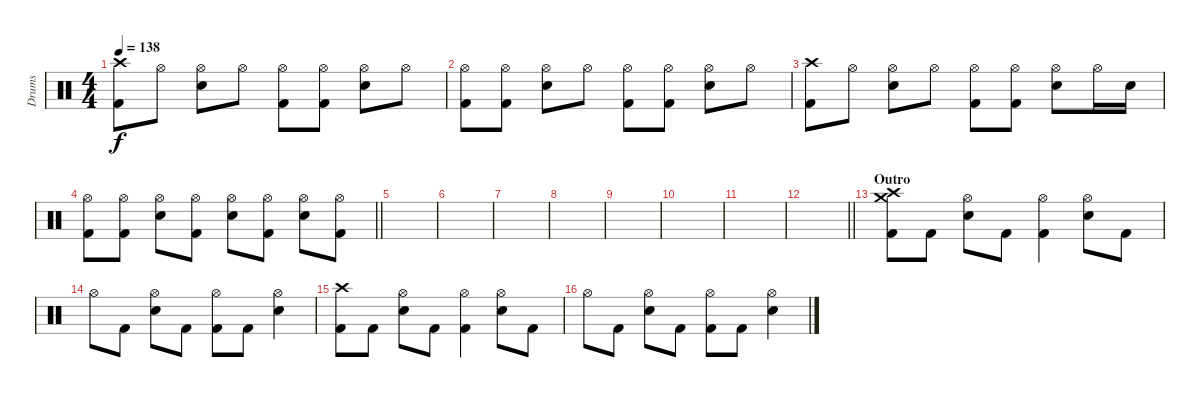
\track ("Drums" "Drums") {instrument percussion}
\staff {score}
\articulation defaults
\ts (4 4)
\tempo 138
\clef neutral
\ks c
("Crash high (hit)" "Kick (hit) 2").8{dy f} "Hi-Hat (open)".8 ("Hi-Hat (open)" "Snare (hit) 2").8 "Hi-Hat (open)".8 ("Hi-Hat (open)" "Kick (hit) 2").8 ("Hi-Hat (open)" "Kick (hit) 2").8 ("Hi-Hat (open)" "Snare (hit) 2").8 "Hi-Hat (open)".8 |
("Hi-Hat (open)" "Kick (hit) 2").8 ("Hi-Hat (open)" "Kick (hit) 2").8 ("Hi-Hat (open)" "Snare (hit) 2").8 "Hi-Hat (open)".8 ("Hi-Hat (open)" "Kick (hit) 2").8 ("Hi-Hat (open)" "Kick (hit) 2").8 ("Hi-Hat (open)" "Snare (hit) 2").8 "Hi-Hat (open)".8 |
("Crash high (hit)" "Kick (hit) 2").8 "Hi-Hat (open)".8 ("Hi-Hat (open)" "Snare (hit) 2").8 "Hi-Hat (open)".8 ("Hi-Hat (open)" "Kick (hit) 2").8 ("Hi-Hat (open)" "Kick (hit) 2").8 ("Hi-Hat (open)" "Snare (hit) 2").8 "Hi-Hat (open)".16 "Snare (hit) 2".16 |
\barLineRight lightlight
("Hi-Hat (open)" "Kick (hit) 2").8 ("Hi-Hat (open)" "Kick (hit) 2").8 ("Hi-Hat (open)" "Snare (hit) 2").8 ("Hi-Hat (open)" "Kick (hit) 2").8 ("Hi-Hat (open)" "Snare (hit) 2").8 ("Hi-Hat (open)" "Kick (hit) 2").8 ("Hi-Hat (open)" "Snare (hit) 2").8 ("Hi-Hat (open)" "Kick (hit) 2").8 |
|
|
|
|
|
|
|
\barLineRight lightlight
|
\section ("" "Outro")
("Crash high (hit)" "Crash medium (hit)" "Kick (hit) 2").8 "Kick (hit) 2".8 ("Hi-Hat (open)" "Snare (hit) 2").8 "Kick (hit) 2".8 ("Hi-Hat (open)" "Kick (hit) 2").4 ("Hi-Hat (open)" "Snare (hit) 2").8 "Kick (hit) 2".8 |
"Hi-Hat (open)".8 "Kick (hit) 2".8 ("Hi-Hat (open)" "Snare (hit) 2").8 "Kick (hit) 2".8 ("Hi-Hat (open)" "Kick (hit) 2").8 "Kick (hit) 2".8 ("Hi-Hat (open)" "Snare (hit) 2").4 |
("Crash high (hit)" "Kick (hit) 2").8 "Kick (hit) 2".8 ("Hi-Hat (open)" "Snare (hit) 2").8 "Kick (hit) 2".8 ("Hi-Hat (open)" "Kick (hit) 2").4 ("Hi-Hat (open)" "Snare (hit) 2").8 "Kick (hit) 2".8 |
"Hi-Hat (open)".8 "Kick (hit) 2".8 ("Hi-Hat (open)" "Snare (hit) 2").8 "Kick (hit) 2".8 ("Hi-Hat (open)" "Kick (hit) 2").8 "Kick (hit) 2".8 ("Hi-Hat (open)" "Snare (hit) 2").4
